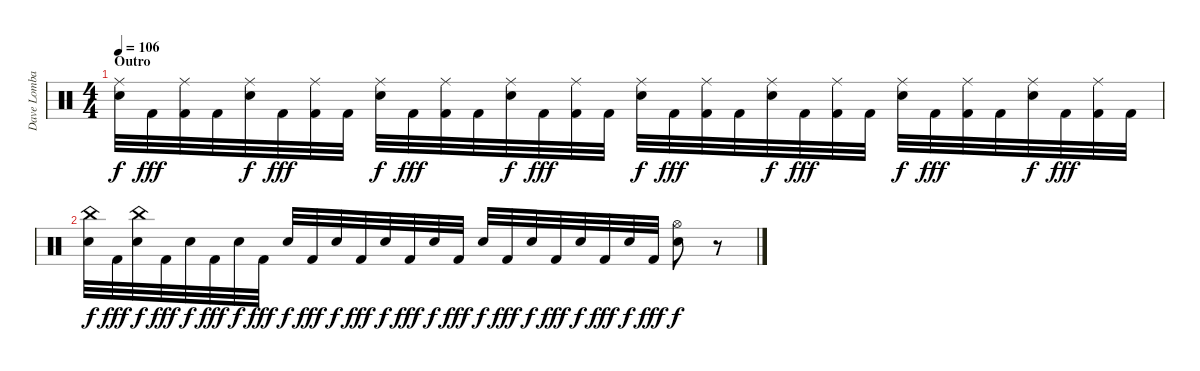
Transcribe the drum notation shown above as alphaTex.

\track ("Dave Lombardo" "Dave Lomba") {instrument percussion}
\staff {score}
\articulation defaults
\ts (4 4)
\section ("" "Outro")
\tempo 106
\clef neutral
\ks c
("Ride (middle)" "Snare (hit) 2").32{dy f} "Kick (hit) 2".32{dy fff} ("Ride (middle)" "Kick (hit) 2").32 "Kick (hit) 2".32 ("Ride (middle)" "Snare (hit) 2").32{dy f} "Kick (hit) 2".32{dy fff} ("Ride (middle)" "Kick (hit) 2").32 "Kick (hit) 2".32 ("Ride (middle)" "Snare (hit) 2").32{dy f} "Kick (hit) 2".32{dy fff} ("Ride (middle)" "Kick (hit) 2").32 "Kick (hit) 2".32 ("Ride (middle)" "Snare (hit) 2").32{dy f} "Kick (hit) 2".32{dy fff} ("Ride (middle)" "Kick (hit) 2").32 "Kick (hit) 2".32 ("Ride (middle)" "Snare (hit) 2").32{dy f} "Kick (hit) 2".32{dy fff} ("Ride (middle)" "Kick (hit) 2").32 "Kick (hit) 2".32 ("Ride (middle)" "Snare (hit) 2").32{dy f} "Kick (hit) 2".32{dy fff} ("Ride (middle)" "Kick (hit) 2").32 "Kick (hit) 2".32 ("Ride (middle)" "Snare (hit) 2").32{dy f} "Kick (hit) 2".32{dy fff} ("Ride (middle)" "Kick (hit) 2").32 "Kick (hit) 2".32 ("Ride (middle)" "Snare (hit) 2").32{dy f} "Kick (hit) 2".32{dy fff} ("Ride (middle)" "Kick (hit) 2").32 "Kick (hit) 2".32 |
("China (hit)" "Snare (hit) 2").32{dy f} "Kick (hit) 2".32{dy fff} ("China (hit)" "Snare (hit) 2").32{dy f} "Kick (hit) 2".32{dy fff} "Snare (hit) 2".32{dy f} "Kick (hit) 2".32{dy fff} "Snare (hit) 2".32{dy f} "Kick (hit) 2".32{dy fff} "Snare (hit) 2".32{dy f} "Kick (hit) 2".32{dy fff} "Snare (hit) 2".32{dy f} "Kick (hit) 2".32{dy fff} "Snare (hit) 2".32{dy f} "Kick (hit) 2".32{dy fff} "Snare (hit) 2".32{dy f} "Kick (hit) 2".32{dy fff} "Snare (hit) 2".32{dy f} "Kick (hit) 2".32{dy fff} "Snare (hit) 2".32{dy f} "Kick (hit) 2".32{dy fff} "Snare (hit) 2".32{dy f} "Kick (hit) 2".32{dy fff} "Snare (hit) 2".32{dy f} "Kick (hit) 2".32{dy fff} ("Hi-Hat (open)" "Snare (hit) 2").8{dy f} r.8
